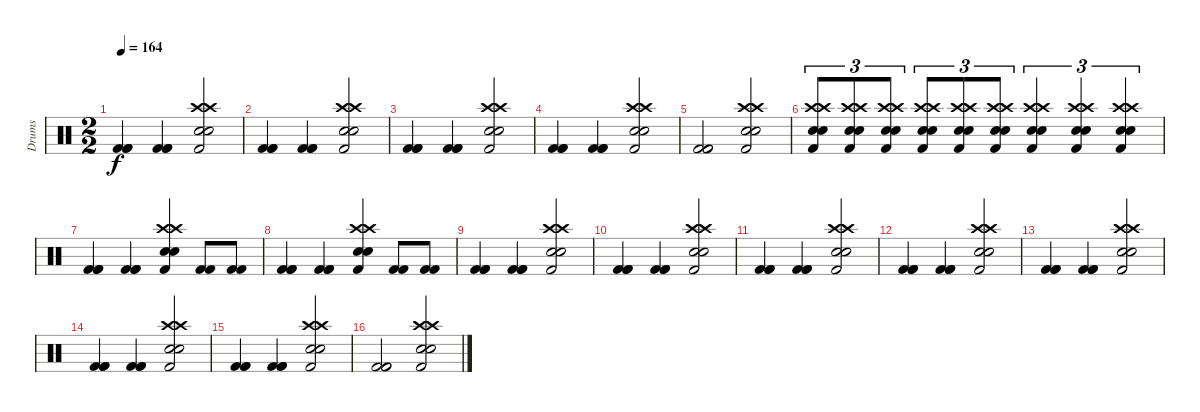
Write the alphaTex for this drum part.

\track ("Drums" "Drums") {instrument percussion}
\staff {score}
\articulation defaults
\ts (2 2)
\tempo 164
\clef neutral
\ks c
("Kick (hit) 2" "Kick (hit) 2" "Kick (hit) 2").4{dy f} ("Kick (hit) 2" "Kick (hit) 2" "Kick (hit) 2").4 ("Crash high (hit)" "Kick (hit) 2" "Snare (hit) 2" "Snare (hit) 2" "Crash high (hit)").2 |
("Kick (hit) 2" "Kick (hit) 2" "Kick (hit) 2").4 ("Kick (hit) 2" "Kick (hit) 2" "Kick (hit) 2").4 ("Crash high (hit)" "Kick (hit) 2" "Snare (hit) 2" "Snare (hit) 2" "Crash high (hit)").2 |
("Kick (hit) 2" "Kick (hit) 2" "Kick (hit) 2").4 ("Kick (hit) 2" "Kick (hit) 2" "Kick (hit) 2").4 ("Crash high (hit)" "Kick (hit) 2" "Snare (hit) 2" "Snare (hit) 2" "Crash high (hit)").2 |
("Kick (hit) 2" "Kick (hit) 2" "Kick (hit) 2").4 ("Kick (hit) 2" "Kick (hit) 2" "Kick (hit) 2").4 ("Crash high (hit)" "Kick (hit) 2" "Snare (hit) 2" "Snare (hit) 2" "Crash high (hit)").2 |
("Kick (hit) 2" "Kick (hit) 2" "Kick (hit) 2").2 ("Crash high (hit)" "Kick (hit) 2" "Snare (hit) 2" "Snare (hit) 2" "Crash high (hit)").2 |
("Crash high (hit)" "Kick (hit) 2" "Snare (hit) 2" "Snare (hit) 2" "Crash high (hit)").8{tu (3 2)} ("Crash high (hit)" "Kick (hit) 2" "Snare (hit) 2" "Snare (hit) 2" "Crash high (hit)").8{tu (3 2)} ("Crash high (hit)" "Kick (hit) 2" "Snare (hit) 2" "Snare (hit) 2" "Crash high (hit)").8{tu (3 2)} ("Crash high (hit)" "Kick (hit) 2" "Snare (hit) 2" "Snare (hit) 2" "Crash high (hit)").8{tu (3 2)} ("Crash high (hit)" "Kick (hit) 2" "Snare (hit) 2" "Snare (hit) 2" "Crash high (hit)").8{tu (3 2)} ("Crash high (hit)" "Kick (hit) 2" "Snare (hit) 2" "Snare (hit) 2" "Crash high (hit)").8{tu (3 2)} ("Crash high (hit)" "Kick (hit) 2" "Snare (hit) 2" "Snare (hit) 2" "Crash high (hit)").4{tu (3 2)} ("Crash high (hit)" "Kick (hit) 2" "Snare (hit) 2" "Snare (hit) 2" "Crash high (hit)").4{tu (3 2)} ("Crash high (hit)" "Kick (hit) 2" "Snare (hit) 2" "Snare (hit) 2" "Crash high (hit)").4{tu (3 2)} |
("Kick (hit) 2" "Kick (hit) 2" "Kick (hit) 2").4 ("Kick (hit) 2" "Kick (hit) 2" "Kick (hit) 2").4 ("Crash high (hit)" "Kick (hit) 2" "Snare (hit) 2" "Snare (hit) 2" "Crash high (hit)").4 ("Kick (hit) 2" "Kick (hit) 2").8 ("Kick (hit) 2" "Kick (hit) 2").8 |
("Kick (hit) 2" "Kick (hit) 2" "Kick (hit) 2").4 ("Kick (hit) 2" "Kick (hit) 2" "Kick (hit) 2").4 ("Crash high (hit)" "Kick (hit) 2" "Snare (hit) 2" "Snare (hit) 2" "Crash high (hit)").4 ("Kick (hit) 2" "Kick (hit) 2").8 ("Kick (hit) 2" "Kick (hit) 2").8 |
("Kick (hit) 2" "Kick (hit) 2" "Kick (hit) 2").4 ("Kick (hit) 2" "Kick (hit) 2" "Kick (hit) 2").4 ("Crash high (hit)" "Kick (hit) 2" "Snare (hit) 2" "Snare (hit) 2" "Crash high (hit)").2 |
("Kick (hit) 2" "Kick (hit) 2" "Kick (hit) 2").4 ("Kick (hit) 2" "Kick (hit) 2" "Kick (hit) 2").4 ("Crash high (hit)" "Kick (hit) 2" "Snare (hit) 2" "Snare (hit) 2" "Crash high (hit)").2 |
("Kick (hit) 2" "Kick (hit) 2" "Kick (hit) 2").4 ("Kick (hit) 2" "Kick (hit) 2" "Kick (hit) 2").4 ("Crash high (hit)" "Kick (hit) 2" "Snare (hit) 2" "Snare (hit) 2" "Crash high (hit)").2 |
("Kick (hit) 2" "Kick (hit) 2" "Kick (hit) 2").4 ("Kick (hit) 2" "Kick (hit) 2" "Kick (hit) 2").4 ("Crash high (hit)" "Kick (hit) 2" "Snare (hit) 2" "Snare (hit) 2" "Crash high (hit)").2 |
("Kick (hit) 2" "Kick (hit) 2" "Kick (hit) 2").4 ("Kick (hit) 2" "Kick (hit) 2" "Kick (hit) 2").4 ("Crash high (hit)" "Kick (hit) 2" "Snare (hit) 2" "Snare (hit) 2" "Crash high (hit)").2 |
("Kick (hit) 2" "Kick (hit) 2" "Kick (hit) 2").4 ("Kick (hit) 2" "Kick (hit) 2" "Kick (hit) 2").4 ("Crash high (hit)" "Kick (hit) 2" "Snare (hit) 2" "Snare (hit) 2" "Crash high (hit)").2 |
("Kick (hit) 2" "Kick (hit) 2" "Kick (hit) 2").4 ("Kick (hit) 2" "Kick (hit) 2" "Kick (hit) 2").4 ("Crash high (hit)" "Kick (hit) 2" "Snare (hit) 2" "Snare (hit) 2" "Crash high (hit)").2 |
("Kick (hit) 2" "Kick (hit) 2" "Kick (hit) 2").2 ("Crash high (hit)" "Kick (hit) 2" "Snare (hit) 2" "Snare (hit) 2" "Crash high (hit)").2
